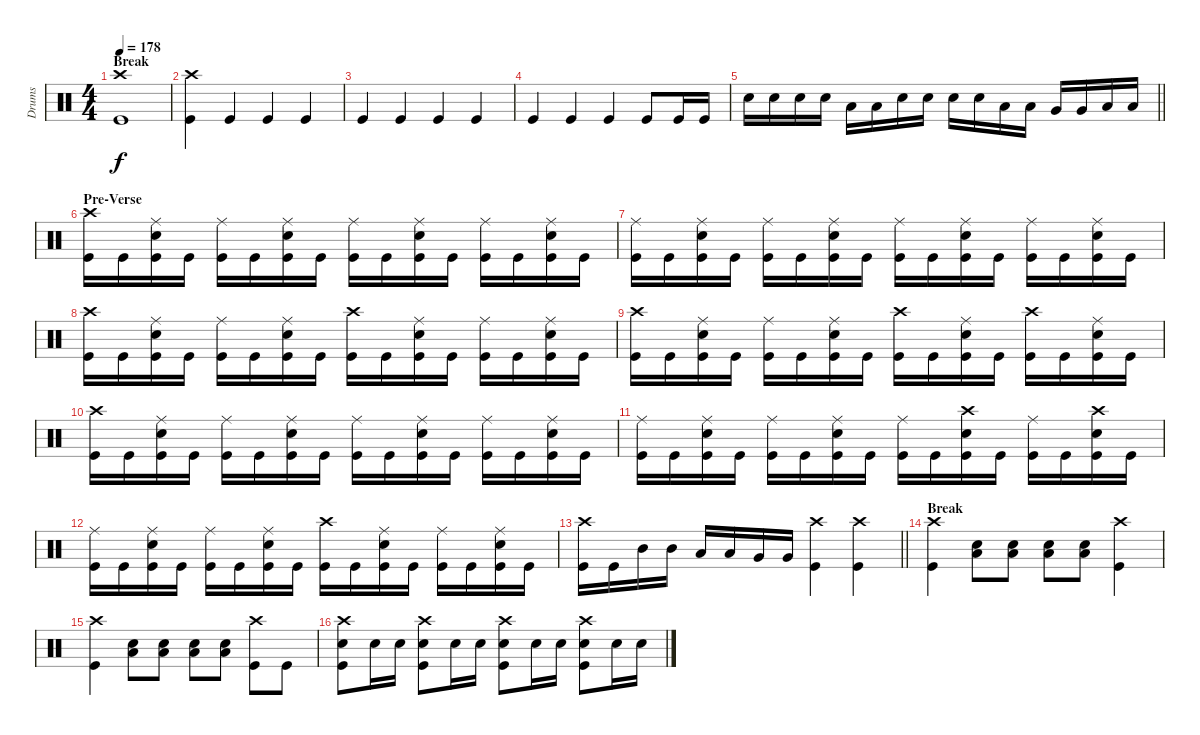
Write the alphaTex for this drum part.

\track ("Drums" "Drums") {instrument percussion}
\staff {score}
\articulation defaults
\ts (4 4)
\section ("" "Break")
\tempo 178
\clef neutral
\ks c
("Crash high (hit)" "Kick (hit)").1{dy f} |
("Crash high (hit)" "Kick (hit)").4 "Kick (hit)".4 "Kick (hit)".4 "Kick (hit)".4 |
"Kick (hit)".4 "Kick (hit)".4 "Kick (hit)".4 "Kick (hit)".4 |
"Kick (hit)".4 "Kick (hit)".4 "Kick (hit)".4 "Kick (hit)".8 "Kick (hit)".16 "Kick (hit)".16 |
\barLineRight lightlight "Snare (hit) 2".16 "Snare (hit) 2".16 "Snare (hit) 2".16 "Snare (hit) 2".16 "Low Tom (hit)".16 "Low Tom (hit)".16 "Snare (hit) 2".16 "Snare (hit) 2".16 "Snare (hit) 2".16 "Snare (hit) 2".16 "Low Tom (hit)".16 "Low Tom (hit)".16 "Very Low Tom (hit)".16 "Very Low Tom (hit)".16 "Low Floor Tom (hit)".16 "Low Floor Tom (hit)".16
|
\section ("" "Pre-Verse")
("Kick (hit)" "Crash high (hit)").16 "Kick (hit)".16 ("Kick (hit)" "Snare (hit) 2" "Ride (middle)").16 "Kick (hit)".16 ("Kick (hit)" "Ride (middle)").16 "Kick (hit)".16 ("Kick (hit)" "Snare (hit) 2" "Ride (middle)").16 "Kick (hit)".16 ("Kick (hit)" "Ride (middle)").16 "Kick (hit)".16 ("Kick (hit)" "Snare (hit) 2" "Ride (middle)").16 "Kick (hit)".16 ("Kick (hit)" "Ride (middle)").16 "Kick (hit)".16 ("Kick (hit)" "Snare (hit) 2" "Ride (middle)").16 "Kick (hit)".16 |
("Kick (hit)" "Ride (middle)").16 "Kick (hit)".16 ("Kick (hit)" "Snare (hit) 2" "Ride (middle)").16 "Kick (hit)".16 ("Kick (hit)" "Ride (middle)").16 "Kick (hit)".16 ("Kick (hit)" "Snare (hit) 2" "Ride (middle)").16 "Kick (hit)".16 ("Kick (hit)" "Ride (middle)").16 "Kick (hit)".16 ("Kick (hit)" "Snare (hit) 2" "Ride (middle)").16 "Kick (hit)".16 ("Kick (hit)" "Ride (middle)").16 "Kick (hit)".16 ("Kick (hit)" "Snare (hit) 2" "Ride (middle)").16 "Kick (hit)".16 |
("Kick (hit)" "Crash high (hit)").16 "Kick (hit)".16 ("Kick (hit)" "Snare (hit) 2" "Ride (middle)").16 "Kick (hit)".16 ("Kick (hit)" "Ride (middle)").16 "Kick (hit)".16 ("Kick (hit)" "Snare (hit) 2" "Ride (middle)").16 "Kick (hit)".16 ("Kick (hit)" "Crash high (hit)").16 "Kick (hit)".16 ("Kick (hit)" "Snare (hit) 2" "Ride (middle)").16 "Kick (hit)".16 ("Kick (hit)" "Ride (middle)").16 "Kick (hit)".16 ("Kick (hit)" "Snare (hit) 2" "Ride (middle)").16 "Kick (hit)".16 |
("Kick (hit)" "Crash high (hit)").16 "Kick (hit)".16 ("Kick (hit)" "Snare (hit) 2" "Ride (middle)").16 "Kick (hit)".16 ("Kick (hit)" "Ride (middle)").16 "Kick (hit)".16 ("Kick (hit)" "Snare (hit) 2" "Ride (middle)").16 "Kick (hit)".16 ("Kick (hit)" "Crash high (hit)").16 "Kick (hit)".16 ("Kick (hit)" "Snare (hit) 2" "Ride (middle)").16 "Kick (hit)".16 ("Kick (hit)" "Crash high (hit)").16 "Kick (hit)".16 ("Kick (hit)" "Snare (hit) 2" "Ride (middle)").16 "Kick (hit)".16 |
("Kick (hit)" "Crash high (hit)").16 "Kick (hit)".16 ("Kick (hit)" "Snare (hit) 2" "Ride (middle)").16 "Kick (hit)".16 ("Kick (hit)" "Ride (middle)").16 "Kick (hit)".16 ("Kick (hit)" "Snare (hit) 2" "Ride (middle)").16 "Kick (hit)".16 ("Kick (hit)" "Ride (middle)").16 "Kick (hit)".16 ("Kick (hit)" "Snare (hit) 2" "Ride (middle)").16 "Kick (hit)".16 ("Kick (hit)" "Ride (middle)").16 "Kick (hit)".16 ("Kick (hit)" "Snare (hit) 2" "Ride (middle)").16 "Kick (hit)".16 |
("Kick (hit)" "Ride (middle)").16 "Kick (hit)".16 ("Kick (hit)" "Snare (hit) 2" "Ride (middle)").16 "Kick (hit)".16 ("Kick (hit)" "Ride (middle)").16 "Kick (hit)".16 ("Kick (hit)" "Snare (hit) 2" "Ride (middle)").16 "Kick (hit)".16 ("Kick (hit)" "Ride (middle)").16 "Kick (hit)".16 ("Kick (hit)" "Snare (hit) 2" "Crash high (hit)").16 "Kick (hit)".16 ("Kick (hit)" "Ride (middle)").16 "Kick (hit)".16 ("Kick (hit)" "Snare (hit) 2" "Crash high (hit)").16 "Kick (hit)".16 |
("Kick (hit)" "Ride (middle)").16 "Kick (hit)".16 ("Kick (hit)" "Snare (hit) 2" "Ride (middle)").16 "Kick (hit)".16 ("Kick (hit)" "Ride (middle)").16 "Kick (hit)".16 ("Kick (hit)" "Snare (hit) 2" "Ride (middle)").16 "Kick (hit)".16 ("Kick (hit)" "Crash high (hit)").16 "Kick (hit)".16 ("Kick (hit)" "Snare (hit) 2" "Ride (middle)").16 "Kick (hit)".16 ("Kick (hit)" "Ride (middle)").16 "Kick (hit)".16 ("Kick (hit)" "Snare (hit) 2" "Ride (middle)").16 "Kick (hit)".16 |
\barLineRight lightlight
("Kick (hit)" "Crash high (hit)").16 "Kick (hit)".16 "Mid Tom (hit)".16 "Mid Tom (hit)".16 "Low Tom (hit)".16 "Low Tom (hit)".16 "Very Low Tom (hit)".16 "Very Low Tom (hit)".16 ("Kick (hit)" "Crash high (hit)").4 ("Kick (hit)" "Crash high (hit)").4 |
\section ("" "Break")
("Kick (hit)" "Crash high (hit)").4 ("Low Floor Tom (hit)" "Snare (hit) 2").8 ("Low Floor Tom (hit)" "Snare (hit) 2").8 ("Low Floor Tom (hit)" "Snare (hit) 2").8 ("Low Floor Tom (hit)" "Snare (hit) 2").8 ("Crash high (hit)" "Kick (hit)").4 |
("Kick (hit)" "Crash high (hit)").4 ("Low Floor Tom (hit)" "Snare (hit) 2").8 ("Low Floor Tom (hit)" "Snare (hit) 2").8 ("Low Floor Tom (hit)" "Snare (hit) 2").8 ("Low Floor Tom (hit)" "Snare (hit) 2").8 ("Crash high (hit)" "Kick (hit)").8 "Kick (hit)".8 |
("Kick (hit)" "Snare (hit) 2" "Crash high (hit)").8 "Snare (hit) 2".16 "Snare (hit) 2".16 ("Kick (hit)" "Snare (hit) 2" "Crash high (hit)").8 "Snare (hit) 2".16 "Snare (hit) 2".16 ("Kick (hit)" "Snare (hit) 2" "Crash high (hit)").8 "Snare (hit) 2".16 "Snare (hit) 2".16 ("Kick (hit)" "Snare (hit) 2" "Crash high (hit)").8 "Snare (hit) 2".16 "Snare (hit) 2".16
